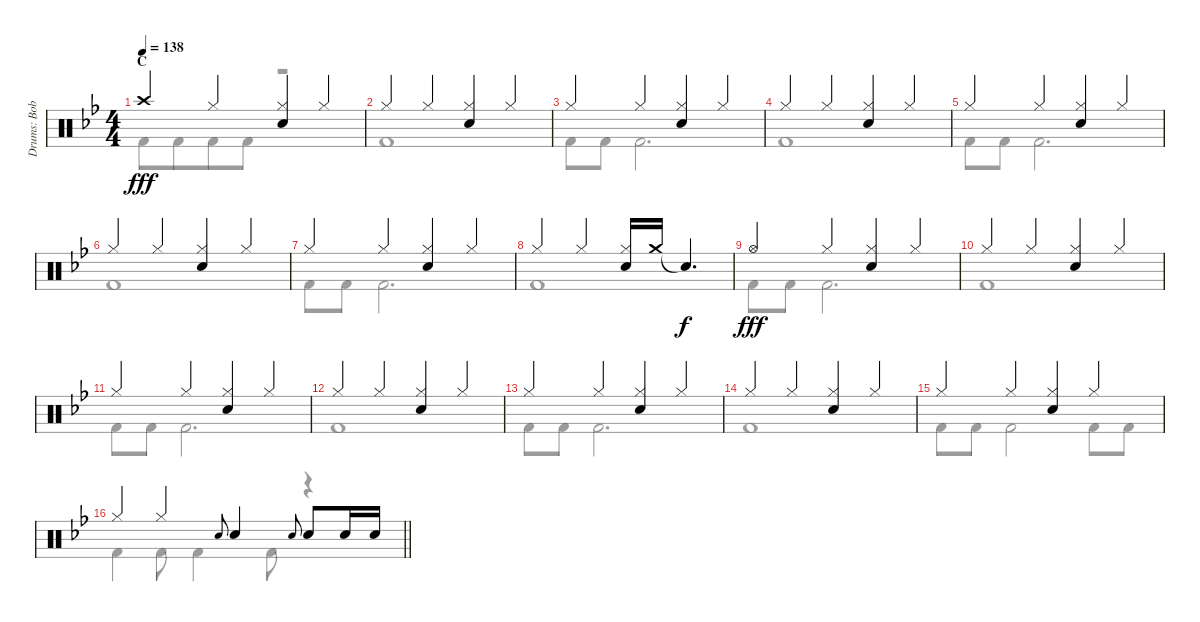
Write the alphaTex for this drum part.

\track ("Drums: Bobby" "Drums: Bob") {instrument percussion}
\staff {score}
\articulation defaults
\voice
\ts (4 4)
\section ("" "C")
\tempo 138
\clef neutral
\ks bb "Crash high (hit)".4{dy fff} "Hi-Hat (closed)".4
("Hi-Hat (closed)" "Snare (hit) 2").4 "Hi-Hat (closed)".4 |
"Hi-Hat (closed)".4 "Hi-Hat (closed)".4 ("Hi-Hat (closed)" "Snare (hit) 2").4 "Hi-Hat (closed)".4 |
"Hi-Hat (closed)".4 "Hi-Hat (closed)".4 ("Hi-Hat (closed)" "Snare (hit) 2").4 "Hi-Hat (closed)".4 |
"Hi-Hat (closed)".4 "Hi-Hat (closed)".4 ("Hi-Hat (closed)" "Snare (hit) 2").4 "Hi-Hat (closed)".4 |
"Hi-Hat (closed)".4 "Hi-Hat (closed)".4 ("Hi-Hat (closed)" "Snare (hit) 2").4 "Hi-Hat (closed)".4 |
"Hi-Hat (closed)".4 "Hi-Hat (closed)".4 ("Hi-Hat (closed)" "Snare (hit) 2").4 "Hi-Hat (closed)".4 |
"Hi-Hat (closed)".4 "Hi-Hat (closed)".4 ("Hi-Hat (closed)" "Snare (hit) 2").4 "Hi-Hat (closed)".4 |
"Hi-Hat (closed)".4 "Hi-Hat (closed)".4 ("Hi-Hat (closed)" "Snare (hit) 2").16 "Crash medium (hit)".16 "Snare (hit)"{t}.4{d dy f} |
"Hi-Hat (open)".4{dy fff} "Hi-Hat (closed)".4 ("Hi-Hat (closed)" "Snare (hit) 2").4 "Hi-Hat (closed)".4 |
"Hi-Hat (closed)".4 "Hi-Hat (closed)".4 ("Hi-Hat (closed)" "Snare (hit) 2").4 "Hi-Hat (closed)".4 |
"Hi-Hat (closed)".4 "Hi-Hat (closed)".4 ("Hi-Hat (closed)" "Snare (hit) 2").4 "Hi-Hat (closed)".4 |
"Hi-Hat (closed)".4 "Hi-Hat (closed)".4 ("Hi-Hat (closed)" "Snare (hit) 2").4 "Hi-Hat (closed)".4 |
"Hi-Hat (closed)".4 "Hi-Hat (closed)".4 ("Hi-Hat (closed)" "Snare (hit) 2").4 "Hi-Hat (closed)".4 |
"Hi-Hat (closed)".4 "Hi-Hat (closed)".4 ("Hi-Hat (closed)" "Snare (hit) 2").4 "Hi-Hat (closed)".4 |
"Hi-Hat (closed)".4 "Hi-Hat (closed)".4 ("Hi-Hat (closed)" "Snare (hit) 2").4 "Hi-Hat (closed)".4 |
\barLineRight lightlight "Hi-Hat (closed)".4 "Hi-Hat (closed)".4 "Electric Snare (hit)".8{gr onbeat} "Snare (hit) 2".4 "Electric Snare (hit)".8{gr onbeat} "Snare (hit) 2".8 "Snare (hit) 2".16 "Snare (hit) 2".16
\voice
\clef neutral
\ottava regular
\simile none
\ks bb "Kick (hit) 2".8{dy fff} "Kick (hit) 2".8{beam merge} "Kick (hit) 2".8 "Kick (hit) 2".8
r.2 |
"Kick (hit) 2".1 |
"Kick (hit) 2".8 "Kick (hit) 2".8 "Kick (hit) 2".2{d} |
"Kick (hit) 2".1 |
"Kick (hit) 2".8 "Kick (hit) 2".8 "Kick (hit) 2".2{d} |
"Kick (hit) 2".1 |
"Kick (hit) 2".8 "Kick (hit) 2".8 "Kick (hit) 2".2{d} |
"Kick (hit) 2".1 |
"Kick (hit) 2".8 "Kick (hit) 2".8 "Kick (hit) 2".2{d} |
"Kick (hit) 2".1 |
"Kick (hit) 2".8 "Kick (hit) 2".8 "Kick (hit) 2".2{d} |
"Kick (hit) 2".1 |
"Kick (hit) 2".8 "Kick (hit) 2".8 "Kick (hit) 2".2{d} |
"Kick (hit) 2".1 |
"Kick (hit) 2".8 "Kick (hit) 2".8 "Kick (hit) 2".2 "Kick (hit) 2".8 "Kick (hit) 2".8 |
\barLineRight lightlight "Kick (hit) 2".4 "Kick (hit) 2".8 "Kick (hit) 2".4 "Kick (hit) 2".8
r.4
